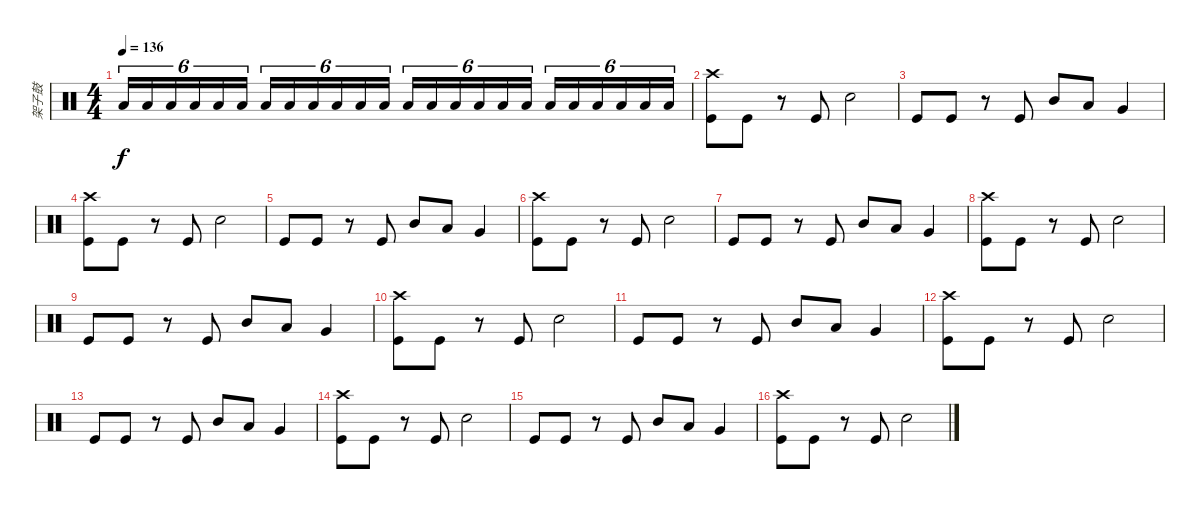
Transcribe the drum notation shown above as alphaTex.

\track ("架子鼓" "架子鼓") {instrument percussion}
\staff {score}
\articulation defaults
\ts (4 4)
\tempo 136
\clef neutral
\ks c "Low Tom (hit)".16{tu (6 4) dy f} "Low Tom (hit)".16{tu (6 4)} "Low Tom (hit)".16{tu (6 4)} "Low Tom (hit)".16{tu (6 4)} "Low Tom (hit)".16{tu (6 4)} "Low Tom (hit)".16{tu (6 4)} "Low Tom (hit)".16{tu (6 4)} "Low Tom (hit)".16{tu (6 4)} "Low Tom (hit)".16{tu (6 4)} "Low Tom (hit)".16{tu (6 4)} "Low Tom (hit)".16{tu (6 4)} "Low Tom (hit)".16{tu (6 4)} "Low Tom (hit)".16{tu (6 4)} "Low Tom (hit)".16{tu (6 4)} "Low Tom (hit)".16{tu (6 4)} "Low Tom (hit)".16{tu (6 4)} "Low Tom (hit)".16{tu (6 4)} "Low Tom (hit)".16{tu (6 4)} "Low Tom (hit)".16{tu (6 4)} "Low Tom (hit)".16{tu (6 4)} "Low Tom (hit)".16{tu (6 4)} "Low Tom (hit)".16{tu (6 4)} "Low Tom (hit)".16{tu (6 4)} "Low Tom (hit)".16{tu (6 4)}
|
("Crash high (hit)" "Kick (hit)").8 "Kick (hit)".8 r.8 "Kick (hit)".8 "Snare (hit) 2".2 |
"Kick (hit)".8 "Kick (hit)".8 r.8 "Kick (hit)".8 "Mid Tom (hit)".8 "Low Tom (hit)".8 "Very Low Tom (hit)".4 |
("Crash high (hit)" "Kick (hit)").8 "Kick (hit)".8 r.8 "Kick (hit)".8 "Snare (hit) 2".2 |
"Kick (hit)".8 "Kick (hit)".8 r.8 "Kick (hit)".8 "Mid Tom (hit)".8 "Low Tom (hit)".8 "Very Low Tom (hit)".4 |
("Crash high (hit)" "Kick (hit)").8 "Kick (hit)".8 r.8 "Kick (hit)".8 "Snare (hit) 2".2 |
"Kick (hit)".8 "Kick (hit)".8 r.8 "Kick (hit)".8 "Mid Tom (hit)".8 "Low Tom (hit)".8 "Very Low Tom (hit)".4 |
("Crash high (hit)" "Kick (hit)").8 "Kick (hit)".8 r.8 "Kick (hit)".8 "Snare (hit) 2".2 |
"Kick (hit)".8 "Kick (hit)".8 r.8 "Kick (hit)".8 "Mid Tom (hit)".8 "Low Tom (hit)".8 "Very Low Tom (hit)".4 |
("Crash high (hit)" "Kick (hit)").8 "Kick (hit)".8 r.8 "Kick (hit)".8 "Snare (hit) 2".2 |
"Kick (hit)".8 "Kick (hit)".8 r.8 "Kick (hit)".8 "Mid Tom (hit)".8 "Low Tom (hit)".8 "Very Low Tom (hit)".4 |
("Crash high (hit)" "Kick (hit)").8 "Kick (hit)".8 r.8 "Kick (hit)".8 "Snare (hit) 2".2 |
"Kick (hit)".8 "Kick (hit)".8 r.8 "Kick (hit)".8 "Mid Tom (hit)".8 "Low Tom (hit)".8 "Very Low Tom (hit)".4 |
("Crash high (hit)" "Kick (hit)").8 "Kick (hit)".8 r.8 "Kick (hit)".8 "Snare (hit) 2".2 |
"Kick (hit)".8 "Kick (hit)".8 r.8 "Kick (hit)".8 "Mid Tom (hit)".8 "Low Tom (hit)".8 "Very Low Tom (hit)".4 |
("Crash high (hit)" "Kick (hit)").8 "Kick (hit)".8 r.8 "Kick (hit)".8 "Snare (hit) 2".2
